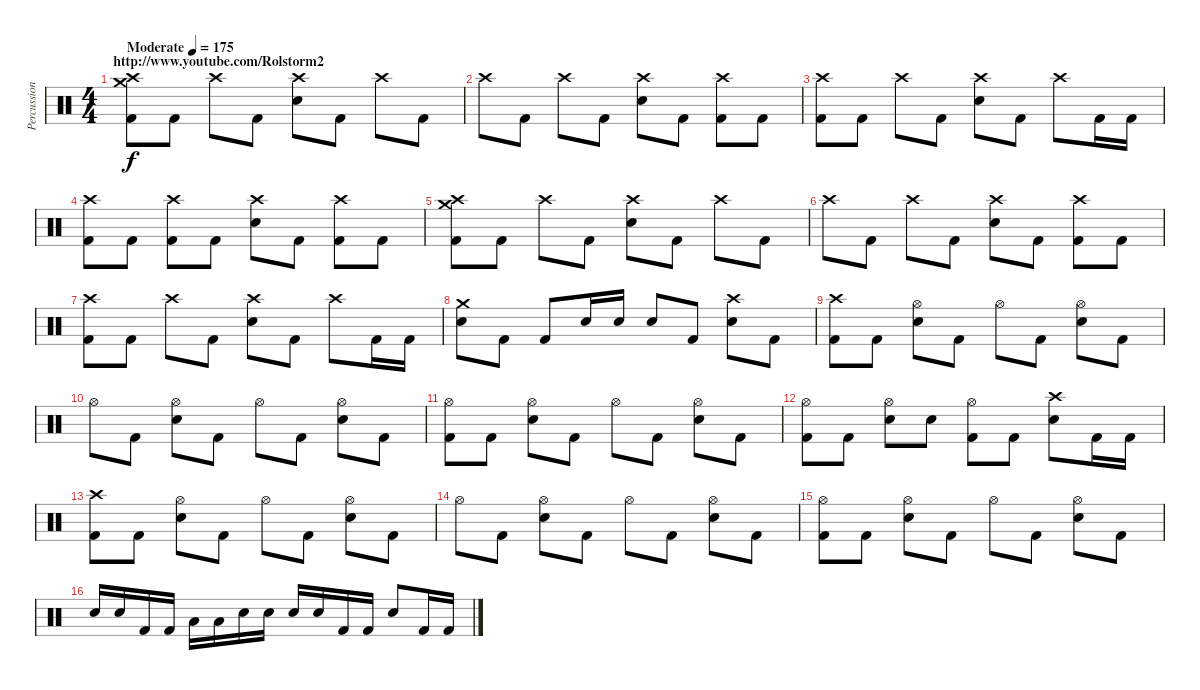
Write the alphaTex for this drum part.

\track ("Percussion" "Percussion") {instrument percussion}
\staff {score}
\articulation defaults
\ts (4 4)
\section ("" "http://www.youtube.com/Rolstorm2")
\tempo (175 "Moderate")
\clef neutral
\ks c
("Crash high (hit)" "Crash medium (hit)" "Kick (hit) 2").8{dy f} "Kick (hit) 2".8 "Crash high (hit)".8 "Kick (hit) 2".8 ("Crash high (hit)" "Electric Snare (hit)").8 "Kick (hit) 2".8 "Crash high (hit)".8 "Kick (hit) 2".8 |
"Crash high (hit)".8 "Kick (hit) 2".8 "Crash high (hit)".8 "Kick (hit) 2".8 ("Crash high (hit)" "Electric Snare (hit)").8 "Kick (hit) 2".8 ("Crash high (hit)" "Kick (hit) 2").8 "Kick (hit) 2".8 |
("Crash high (hit)" "Kick (hit) 2").8 "Kick (hit) 2".8 "Crash high (hit)".8 "Kick (hit) 2".8 ("Crash high (hit)" "Electric Snare (hit)").8 "Kick (hit) 2".8 "Crash high (hit)".8 "Kick (hit) 2".16 "Kick (hit) 2".16 |
("Crash high (hit)" "Kick (hit) 2").8 "Kick (hit) 2".8 ("Crash high (hit)" "Kick (hit) 2").8 "Kick (hit) 2".8 ("Crash high (hit)" "Electric Snare (hit)").8 "Kick (hit) 2".8 ("Crash high (hit)" "Kick (hit) 2").8 "Kick (hit) 2".8 |
("Crash high (hit)" "Crash medium (hit)" "Kick (hit) 2").8 "Kick (hit) 2".8 "Crash high (hit)".8 "Kick (hit) 2".8 ("Crash high (hit)" "Electric Snare (hit)").8 "Kick (hit) 2".8 "Crash high (hit)".8 "Kick (hit) 2".8 |
"Crash high (hit)".8 "Kick (hit) 2".8 "Crash high (hit)".8 "Kick (hit) 2".8 ("Crash high (hit)" "Electric Snare (hit)").8 "Kick (hit) 2".8 ("Crash high (hit)" "Kick (hit) 2").8 "Kick (hit) 2".8 |
("Crash high (hit)" "Kick (hit) 2").8 "Kick (hit) 2".8 "Crash high (hit)".8 "Kick (hit) 2".8 ("Crash high (hit)" "Electric Snare (hit)").8 "Kick (hit) 2".8 "Crash high (hit)".8 "Kick (hit) 2".16 "Kick (hit) 2".16 |
("Crash medium (hit)" "Electric Snare (hit)").8 "Kick (hit) 2".8 "Kick (hit) 2".8 "Electric Snare (hit)".16 "Electric Snare (hit)".16 "Electric Snare (hit)".8 "Kick (hit) 2".8 ("Crash high (hit)" "Electric Snare (hit)").8 "Kick (hit) 2".8 |
("Crash high (hit)" "Kick (hit) 2").8 "Kick (hit) 2".8 ("Hi-Hat (open)" "Electric Snare (hit)").8 "Kick (hit) 2".8 "Hi-Hat (open)".8 "Kick (hit) 2".8 ("Hi-Hat (open)" "Electric Snare (hit)").8 "Kick (hit) 2".8 |
"Hi-Hat (open)".8 "Kick (hit) 2".8 ("Hi-Hat (open)" "Electric Snare (hit)").8 "Kick (hit) 2".8 "Hi-Hat (open)".8 "Kick (hit) 2".8 ("Hi-Hat (open)" "Electric Snare (hit)").8 "Kick (hit) 2".8 |
("Hi-Hat (open)" "Kick (hit) 2").8 "Kick (hit) 2".8 ("Hi-Hat (open)" "Electric Snare (hit)").8 "Kick (hit) 2".8 "Hi-Hat (open)".8 "Kick (hit) 2".8 ("Hi-Hat (open)" "Electric Snare (hit)").8 "Kick (hit) 2".8 |
("Hi-Hat (open)" "Kick (hit) 2").8 "Kick (hit) 2".8 ("Hi-Hat (open)" "Electric Snare (hit)").8 "Electric Snare (hit)".8 ("Hi-Hat (open)" "Kick (hit) 2").8 "Kick (hit) 2".8 ("Crash high (hit)" "Electric Snare (hit)").8 "Kick (hit) 2".16 "Kick (hit) 2".16 |
("Crash high (hit)" "Kick (hit) 2").8 "Kick (hit) 2".8 ("Hi-Hat (open)" "Electric Snare (hit)").8 "Kick (hit) 2".8 "Hi-Hat (open)".8 "Kick (hit) 2".8 ("Hi-Hat (open)" "Electric Snare (hit)").8 "Kick (hit) 2".8 |
"Hi-Hat (open)".8 "Kick (hit) 2".8 ("Hi-Hat (open)" "Electric Snare (hit)").8 "Kick (hit) 2".8 "Hi-Hat (open)".8 "Kick (hit) 2".8 ("Hi-Hat (open)" "Electric Snare (hit)").8 "Kick (hit) 2".8 |
("Hi-Hat (open)" "Kick (hit) 2").8 "Kick (hit) 2".8 ("Hi-Hat (open)" "Electric Snare (hit)").8 "Kick (hit) 2".8 "Hi-Hat (open)".8 "Kick (hit) 2".8 ("Hi-Hat (open)" "Electric Snare (hit)").8 "Kick (hit) 2".8 |
"Electric Snare (hit)".16 "Electric Snare (hit)".16 "Kick (hit) 2".16 "Kick (hit) 2".16 "Low Tom (hit)".16 "Low Tom (hit)".16 "Electric Snare (hit)".16 "Electric Snare (hit)".16 "Electric Snare (hit)".16 "Electric Snare (hit)".16 "Kick (hit) 2".16 "Kick (hit) 2".16 "Electric Snare (hit)".8 "Kick (hit) 2".16 "Kick (hit) 2".16
